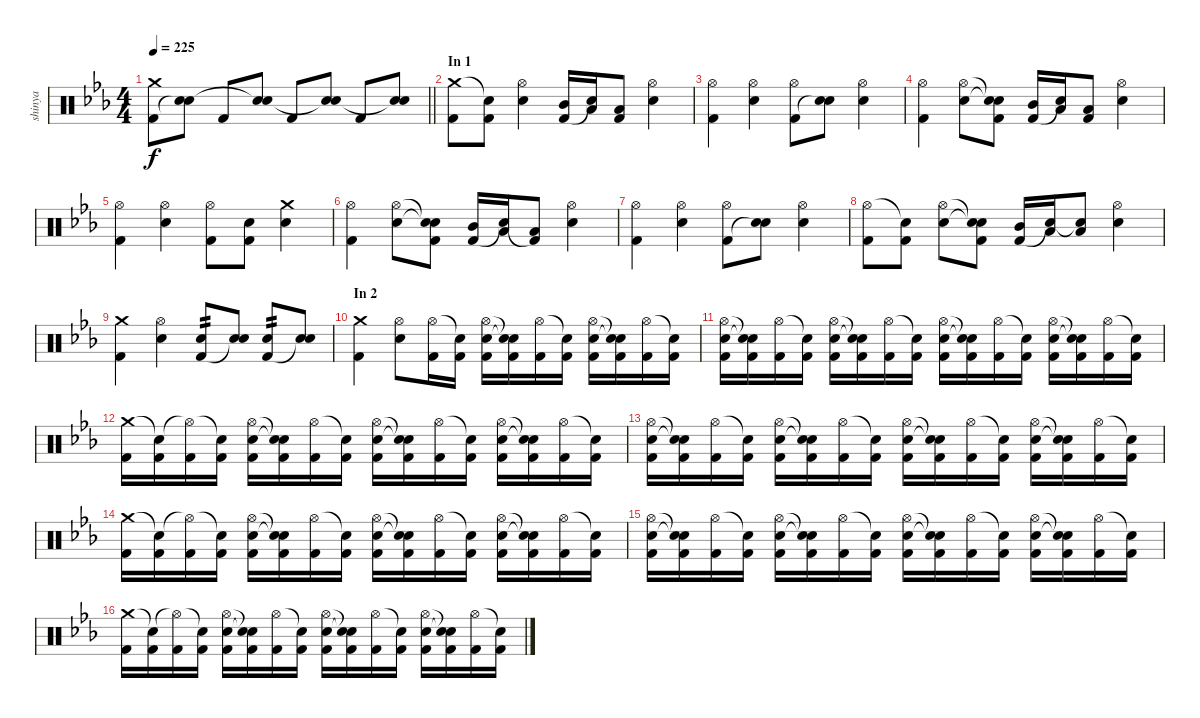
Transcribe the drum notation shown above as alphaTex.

\track ("shinya" "shinya") {instrument percussion}
\staff {score}
\articulation defaults
\ts (4 4)
\tempo 225
\clef neutral
\barLineRight lightlight
\ks eb
("Crash medium (hit)" "Kick (hit) 2").8{dy f} ("Electric Snare (hit)" "Snare (hit)"{t}).8 "Kick (hit) 2".8 ("Electric Snare (hit)" "Snare (hit)"{t}).8 "Kick (hit) 2".8 ("Electric Snare (hit)" "Snare (hit)"{t}).8 "Kick (hit) 2".8 ("Electric Snare (hit)" "Snare (hit)"{t}).8 |
\section ("" "In 1")
("Crash medium (hit)" "Kick (hit) 2").8 ("Snare (hit)"{t} "Kick (hit) 2").8 ("Hi-Hat (open)" "Electric Snare (hit)").4 ("Mid Tom (hit)" "Kick (hit) 2").16 ("Low Tom (hit)" "Snare (hit)"{t}).16 ("Low Floor Tom (hit)" "Kick (hit) 2").8 ("Hi-Hat (open)" "Electric Snare (hit)").4 |
("Hi-Hat (open)" "Kick (hit) 2").4 ("Hi-Hat (open)" "Electric Snare (hit)").4 ("Hi-Hat (open)" "Kick (hit) 2").8 ("Electric Snare (hit)" "Snare (hit)"{t}).8 ("Hi-Hat (open)" "Electric Snare (hit)").4 |
("Hi-Hat (open)" "Kick (hit) 2").4 ("Hi-Hat (open)" "Electric Snare (hit)").8 ("Snare (hit)"{t} "Snare (hit)"{t} "Kick (hit) 2").8 ("Mid Tom (hit)" "Kick (hit) 2").16 ("Low Tom (hit)" "Snare (hit)"{t}).16 ("Low Floor Tom (hit)" "Kick (hit) 2").8 ("Hi-Hat (open)" "Electric Snare (hit)").4 |
("Hi-Hat (open)" "Kick (hit) 2").4 ("Hi-Hat (open)" "Electric Snare (hit)").4 ("Hi-Hat (open)" "Kick (hit) 2").8 ("Electric Snare (hit)" "Kick (hit) 2").8 ("Crash medium (hit)" "Electric Snare (hit)").4 |
("Hi-Hat (open)" "Kick (hit) 2").4 ("Hi-Hat (open)" "Electric Snare (hit)").8 ("Snare (hit)"{t} "Snare (hit)"{t} "Kick (hit) 2").8 ("Mid Tom (hit)" "Kick (hit) 2").16 ("Low Tom (hit)" "Snare (hit)"{t}).16 ("Low Floor Tom (hit)" "Kick (hit) 2"{t}).8 ("Hi-Hat (open)" "Electric Snare (hit)").4 |
("Hi-Hat (open)" "Kick (hit) 2").4 ("Hi-Hat (open)" "Electric Snare (hit)").4 ("Hi-Hat (open)" "Kick (hit) 2").8 ("Electric Snare (hit)" "Snare (hit)"{t}).8 ("Hi-Hat (open)" "Electric Snare (hit)").4 |
("Hi-Hat (open)" "Kick (hit) 2").8 ("Snare (hit)"{t} "Kick (hit) 2").8 ("Hi-Hat (open)" "Electric Snare (hit)").8 ("Snare (hit)"{t} "Snare (hit)"{t} "Kick (hit) 2").8 ("Mid Tom (hit)" "Kick (hit) 2").16 ("Low Tom (hit)" "Snare (hit)"{t}).16 ("Low Floor Tom (hit)" "Snare (hit)"{t}).8 ("Hi-Hat (open)" "Electric Snare (hit)").4 |
("Crash medium (hit)" "Kick (hit) 2").4 ("Hi-Hat (open)" "Electric Snare (hit)").4 ("Electric Snare (hit)" "Kick (hit) 2").8{tp 2} ("Electric Snare (hit)" "Snare (hit)"{t}).8 ("Electric Snare (hit)" "Kick (hit) 2").8{tp 2} ("Electric Snare (hit)" "Snare (hit)"{t}).8 |
\section ("" "In 2")
("Crash medium (hit)" "Kick (hit) 2").4 ("Hi-Hat (open)" "Electric Snare (hit)").8 ("Hi-Hat (open)" "Kick (hit) 2").16 ("Snare (hit)"{t} "Kick (hit) 2").16 ("Hi-Hat (open)" "Electric Snare (hit)" "Kick (hit) 2").16 ("Snare (hit)"{t} "Snare (hit)"{t} "Kick (hit) 2").16 ("Hi-Hat (open)" "Kick (hit) 2").16 ("Snare (hit)"{t} "Kick (hit) 2").16 ("Hi-Hat (open)" "Electric Snare (hit)" "Kick (hit) 2").16 ("Snare (hit)"{t} "Snare (hit)"{t} "Kick (hit) 2").16 ("Hi-Hat (open)" "Kick (hit) 2").16 ("Snare (hit)"{t} "Kick (hit) 2").16 |
("Hi-Hat (open)" "Electric Snare (hit)" "Kick (hit) 2").16 ("Snare (hit)"{t} "Snare (hit)"{t} "Kick (hit) 2").16 ("Hi-Hat (open)" "Kick (hit) 2").16 ("Snare (hit)"{t} "Kick (hit) 2").16 ("Hi-Hat (open)" "Electric Snare (hit)" "Kick (hit) 2").16 ("Snare (hit)"{t} "Snare (hit)"{t} "Kick (hit) 2").16 ("Hi-Hat (open)" "Kick (hit) 2").16 ("Snare (hit)"{t} "Kick (hit) 2").16 ("Hi-Hat (open)" "Electric Snare (hit)" "Kick (hit) 2").16 ("Snare (hit)"{t} "Snare (hit)"{t} "Kick (hit) 2").16 ("Hi-Hat (open)" "Kick (hit) 2").16 ("Snare (hit)"{t} "Kick (hit) 2").16 ("Hi-Hat (open)" "Electric Snare (hit)" "Kick (hit) 2").16 ("Snare (hit)"{t} "Snare (hit)"{t} "Kick (hit) 2").16 ("Hi-Hat (open)" "Kick (hit) 2").16 ("Snare (hit)"{t} "Kick (hit) 2").16 |
("Crash medium (hit)" "Kick (hit) 2").16 ("Snare (hit)"{t} "Kick (hit) 2").16 ("Hi-Hat (open)"{t} "Kick (hit) 2").16 ("Snare (hit)"{t} "Kick (hit) 2").16 ("Hi-Hat (open)" "Electric Snare (hit)" "Kick (hit) 2").16 ("Snare (hit)"{t} "Snare (hit)"{t} "Kick (hit) 2").16 ("Hi-Hat (open)" "Kick (hit) 2").16 ("Snare (hit)"{t} "Kick (hit) 2").16 ("Hi-Hat (open)" "Electric Snare (hit)" "Kick (hit) 2").16 ("Snare (hit)"{t} "Snare (hit)"{t} "Kick (hit) 2").16 ("Hi-Hat (open)" "Kick (hit) 2").16 ("Snare (hit)"{t} "Kick (hit) 2").16 ("Hi-Hat (open)" "Electric Snare (hit)" "Kick (hit) 2").16 ("Snare (hit)"{t} "Snare (hit)"{t} "Kick (hit) 2").16 ("Hi-Hat (open)" "Kick (hit) 2").16 ("Snare (hit)"{t} "Kick (hit) 2").16 |
("Hi-Hat (open)" "Electric Snare (hit)" "Kick (hit) 2").16 ("Snare (hit)"{t} "Snare (hit)"{t} "Kick (hit) 2").16 ("Hi-Hat (open)" "Kick (hit) 2").16 ("Snare (hit)"{t} "Kick (hit) 2").16 ("Hi-Hat (open)" "Electric Snare (hit)" "Kick (hit) 2").16 ("Snare (hit)"{t} "Snare (hit)"{t} "Kick (hit) 2").16 ("Hi-Hat (open)" "Kick (hit) 2").16 ("Snare (hit)"{t} "Kick (hit) 2").16 ("Hi-Hat (open)" "Electric Snare (hit)" "Kick (hit) 2").16 ("Snare (hit)"{t} "Snare (hit)"{t} "Kick (hit) 2").16 ("Hi-Hat (open)" "Kick (hit) 2").16 ("Snare (hit)"{t} "Kick (hit) 2").16 ("Hi-Hat (open)" "Electric Snare (hit)" "Kick (hit) 2").16 ("Snare (hit)"{t} "Snare (hit)"{t} "Kick (hit) 2").16 ("Hi-Hat (open)" "Kick (hit) 2").16 ("Snare (hit)"{t} "Kick (hit) 2").16 |
("Crash medium (hit)" "Kick (hit) 2").16 ("Snare (hit)"{t} "Kick (hit) 2").16 ("Hi-Hat (open)"{t} "Kick (hit) 2").16 ("Snare (hit)"{t} "Kick (hit) 2").16 ("Hi-Hat (open)" "Electric Snare (hit)" "Kick (hit) 2").16 ("Snare (hit)"{t} "Snare (hit)"{t} "Kick (hit) 2").16 ("Hi-Hat (open)" "Kick (hit) 2").16 ("Snare (hit)"{t} "Kick (hit) 2").16 ("Hi-Hat (open)" "Electric Snare (hit)" "Kick (hit) 2").16 ("Snare (hit)"{t} "Snare (hit)"{t} "Kick (hit) 2").16 ("Hi-Hat (open)" "Kick (hit) 2").16 ("Snare (hit)"{t} "Kick (hit) 2").16 ("Hi-Hat (open)" "Electric Snare (hit)" "Kick (hit) 2").16 ("Snare (hit)"{t} "Snare (hit)"{t} "Kick (hit) 2").16 ("Hi-Hat (open)" "Kick (hit) 2").16 ("Snare (hit)"{t} "Kick (hit) 2").16 |
("Hi-Hat (open)" "Electric Snare (hit)" "Kick (hit) 2").16 ("Snare (hit)"{t} "Snare (hit)"{t} "Kick (hit) 2").16 ("Hi-Hat (open)" "Kick (hit) 2").16 ("Snare (hit)"{t} "Kick (hit) 2").16 ("Hi-Hat (open)" "Electric Snare (hit)" "Kick (hit) 2").16 ("Snare (hit)"{t} "Snare (hit)"{t} "Kick (hit) 2").16 ("Hi-Hat (open)" "Kick (hit) 2").16 ("Snare (hit)"{t} "Kick (hit) 2").16 ("Hi-Hat (open)" "Electric Snare (hit)" "Kick (hit) 2").16 ("Snare (hit)"{t} "Snare (hit)"{t} "Kick (hit) 2").16 ("Hi-Hat (open)" "Kick (hit) 2").16 ("Snare (hit)"{t} "Kick (hit) 2").16 ("Hi-Hat (open)" "Electric Snare (hit)" "Kick (hit) 2").16 ("Snare (hit)"{t} "Snare (hit)"{t} "Kick (hit) 2").16 ("Hi-Hat (open)" "Kick (hit) 2").16 ("Snare (hit)"{t} "Kick (hit) 2").16 |
("Crash medium (hit)" "Kick (hit) 2").16 ("Snare (hit)"{t} "Kick (hit) 2").16 ("Hi-Hat (open)"{t} "Kick (hit) 2").16 ("Snare (hit)"{t} "Kick (hit) 2").16 ("Hi-Hat (open)" "Electric Snare (hit)" "Kick (hit) 2").16 ("Snare (hit)"{t} "Snare (hit)"{t} "Kick (hit) 2").16 ("Hi-Hat (open)" "Kick (hit) 2").16 ("Snare (hit)"{t} "Kick (hit) 2").16 ("Hi-Hat (open)" "Electric Snare (hit)" "Kick (hit) 2").16 ("Snare (hit)"{t} "Snare (hit)"{t} "Kick (hit) 2").16 ("Hi-Hat (open)" "Kick (hit) 2").16 ("Snare (hit)"{t} "Kick (hit) 2").16 ("Hi-Hat (open)" "Electric Snare (hit)" "Kick (hit) 2").16 ("Snare (hit)"{t} "Snare (hit)"{t} "Kick (hit) 2").16 ("Hi-Hat (open)" "Kick (hit) 2").16 ("Snare (hit)"{t} "Kick (hit) 2").16
